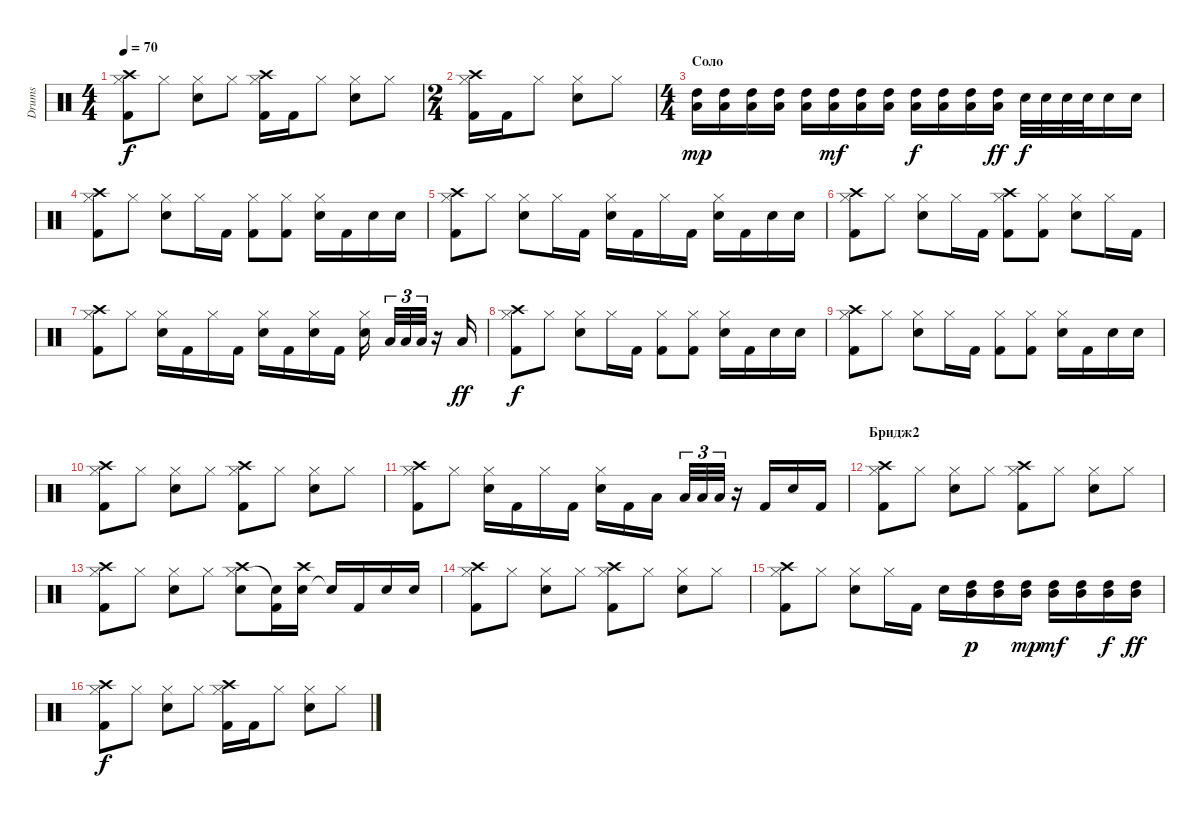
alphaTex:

\track ("Drums" "Drums") {instrument percussion}
\staff {score}
\articulation defaults
\ts (4 4)
\tempo 70
\clef neutral
\ks c
("Kick (hit) 2" "Hi-Hat (closed)" "Crash high (hit)").8{dy f} "Hi-Hat (closed)".8 ("Electric Snare (hit)" "Hi-Hat (closed)").8 "Hi-Hat (closed)".8 ("Kick (hit) 2" "Hi-Hat (closed)" "Crash high (hit)").16 "Kick (hit) 2".16 "Hi-Hat (closed)".8 ("Electric Snare (hit)" "Hi-Hat (closed)").8 "Hi-Hat (closed)".8 |
\ts (2 4)
("Kick (hit) 2" "Hi-Hat (closed)" "Crash high (hit)").16 "Kick (hit) 2".16 "Hi-Hat (closed)".8 ("Electric Snare (hit)" "Hi-Hat (closed)").8 "Hi-Hat (closed)".8 |
\ts (4 4)
\section ("" "Соло")
("Low Tom (hit)" "High Tom (hit)").16{dy mp} ("Low Tom (hit)" "High Tom (hit)").16 ("Low Tom (hit)" "High Tom (hit)").16 ("Low Tom (hit)" "High Tom (hit)").16 ("Low Tom (hit)" "High Tom (hit)").16 ("Low Tom (hit)" "High Tom (hit)").16{dy mf} ("Low Tom (hit)" "High Tom (hit)").16 ("Low Tom (hit)" "High Tom (hit)").16 ("Low Tom (hit)" "High Tom (hit)").16{dy f} ("Low Tom (hit)" "High Tom (hit)").16 ("Low Tom (hit)" "High Tom (hit)").16 ("Low Tom (hit)" "High Tom (hit)").16{dy ff} "Electric Snare (hit)".32{dy f} "Electric Snare (hit)".32 "Electric Snare (hit)".32 "Electric Snare (hit)".32 "Electric Snare (hit)".16 "Electric Snare (hit)".16 |
("Kick (hit) 2" "Hi-Hat (closed)" "Crash high (hit)").8 "Hi-Hat (closed)".8 ("Electric Snare (hit)" "Hi-Hat (closed)").8 "Hi-Hat (closed)".16 "Kick (hit) 2".16 ("Kick (hit) 2" "Hi-Hat (closed)").8 ("Kick (hit) 2" "Hi-Hat (closed)").8 ("Electric Snare (hit)" "Hi-Hat (closed)").16 "Kick (hit) 2".16 "Electric Snare (hit)".16 "Electric Snare (hit)".16 |
("Kick (hit) 2" "Hi-Hat (closed)" "Crash high (hit)").8 "Hi-Hat (closed)".8 ("Electric Snare (hit)" "Hi-Hat (closed)").8 "Hi-Hat (closed)".16 "Kick (hit) 2".16 ("Electric Snare (hit)" "Hi-Hat (closed)").16 "Kick (hit) 2".16 "Hi-Hat (closed)".16 "Kick (hit) 2".16 ("Electric Snare (hit)" "Hi-Hat (closed)").16 "Kick (hit) 2".16 "Electric Snare (hit)".16 "Electric Snare (hit)".16 |
("Kick (hit) 2" "Hi-Hat (closed)" "Crash high (hit)").8 "Hi-Hat (closed)".8 ("Electric Snare (hit)" "Hi-Hat (closed)").8 "Hi-Hat (closed)".16 "Kick (hit) 2".16 ("Kick (hit) 2" "Hi-Hat (closed)" "Crash high (hit)").8 ("Kick (hit) 2" "Hi-Hat (closed)").8 ("Electric Snare (hit)" "Hi-Hat (closed)").8 "Hi-Hat (closed)".16 "Kick (hit) 2".16 |
("Kick (hit) 2" "Hi-Hat (closed)" "Crash high (hit)").8 "Hi-Hat (closed)".8 ("Electric Snare (hit)" "Hi-Hat (closed)").16 "Kick (hit) 2".16 "Hi-Hat (closed)".16 "Kick (hit) 2".16 ("Electric Snare (hit)" "Hi-Hat (closed)").16 "Kick (hit) 2".16 ("Electric Snare (hit)" "Hi-Hat (closed)").16 "Kick (hit) 2".16 ("Electric Snare (hit)" "Hi-Hat (closed)").16 "Low Tom (hit)".32{tu (3 2)} "Low Tom (hit)".32{tu (3 2)} "Low Tom (hit)".32{tu (3 2)} r.16 "Low Tom (hit)".16{dy ff} |
("Kick (hit) 2" "Hi-Hat (closed)" "Crash high (hit)").8{dy f} "Hi-Hat (closed)".8 ("Electric Snare (hit)" "Hi-Hat (closed)").8 "Hi-Hat (closed)".16 "Kick (hit) 2".16 ("Kick (hit) 2" "Hi-Hat (closed)").8 ("Kick (hit) 2" "Hi-Hat (closed)").8 ("Electric Snare (hit)" "Hi-Hat (closed)").16 "Kick (hit) 2".16 "Electric Snare (hit)".16 "Electric Snare (hit)".16 |
("Kick (hit) 2" "Hi-Hat (closed)" "Crash high (hit)").8 "Hi-Hat (closed)".8 ("Electric Snare (hit)" "Hi-Hat (closed)").8 "Hi-Hat (closed)".16 "Kick (hit) 2".16 ("Kick (hit) 2" "Hi-Hat (closed)").8 ("Kick (hit) 2" "Hi-Hat (closed)").8 ("Electric Snare (hit)" "Hi-Hat (closed)").16 "Kick (hit) 2".16 "Electric Snare (hit)".16 "Electric Snare (hit)".16 |
("Kick (hit) 2" "Hi-Hat (closed)" "Crash high (hit)").8 "Hi-Hat (closed)".8 ("Electric Snare (hit)" "Hi-Hat (closed)").8 "Hi-Hat (closed)".8 ("Kick (hit) 2" "Hi-Hat (closed)" "Crash high (hit)").8 "Hi-Hat (closed)".8 ("Electric Snare (hit)" "Hi-Hat (closed)").8 "Hi-Hat (closed)".8 |
("Kick (hit) 2" "Hi-Hat (closed)" "Crash high (hit)").8 "Hi-Hat (closed)".8 ("Electric Snare (hit)" "Hi-Hat (closed)").16 "Kick (hit) 2".16 "Hi-Hat (closed)".16 "Kick (hit) 2".16 ("Electric Snare (hit)" "Hi-Hat (closed)").16 "Kick (hit) 2".16 "Low Tom (hit)".16 "Low Tom (hit)".32{tu (3 2)} "Low Tom (hit)".32{tu (3 2)} "Low Tom (hit)".32{tu (3 2)} r.16 "Kick (hit) 2".16 "Electric Snare (hit)".16 "Kick (hit) 2".16 |
\section ("" "Бридж2")
("Kick (hit) 2" "Hi-Hat (closed)" "Crash high (hit)").8 "Hi-Hat (closed)".8 ("Electric Snare (hit)" "Hi-Hat (closed)").8 "Hi-Hat (closed)".8 ("Kick (hit) 2" "Hi-Hat (closed)" "Crash high (hit)").8 "Hi-Hat (closed)".8 ("Electric Snare (hit)" "Hi-Hat (closed)").8 "Hi-Hat (closed)".8 |
("Kick (hit) 2" "Hi-Hat (closed)" "Crash high (hit)").8 "Hi-Hat (closed)".8 ("Electric Snare (hit)" "Hi-Hat (closed)").8 "Hi-Hat (closed)".8 ("Electric Snare (hit)" "Hi-Hat (closed)" "Crash high (hit)").8 ("Kick (hit) 2" "Snare (hit)"{t}).16 ("Electric Snare (hit)" "Crash high (hit)").16 "Snare (hit)"{t}.16 "Kick (hit) 2".16 "Electric Snare (hit)".16 "Electric Snare (hit)".16 |
("Kick (hit) 2" "Hi-Hat (closed)" "Crash high (hit)").8 "Hi-Hat (closed)".8 ("Electric Snare (hit)" "Hi-Hat (closed)").8 "Hi-Hat (closed)".8 ("Kick (hit) 2" "Hi-Hat (closed)" "Crash high (hit)").8 "Hi-Hat (closed)".8 ("Electric Snare (hit)" "Hi-Hat (closed)").8 "Hi-Hat (closed)".8 |
("Kick (hit) 2" "Hi-Hat (closed)" "Crash high (hit)").8 "Hi-Hat (closed)".8 ("Electric Snare (hit)" "Hi-Hat (closed)").8 "Hi-Hat (closed)".16 "Kick (hit) 2".16 "Electric Snare (hit)".16 ("High Tom (hit)" "Mid Tom (hit)").16{dy p} ("High Tom (hit)" "Mid Tom (hit)").16 ("High Tom (hit)" "Mid Tom (hit)").16{dy mp} ("High Tom (hit)" "Mid Tom (hit)").16{dy mf} ("High Tom (hit)" "Mid Tom (hit)").16 ("High Tom (hit)" "Mid Tom (hit)").16{dy f} ("High Tom (hit)" "Mid Tom (hit)").16{dy ff} |
("Kick (hit) 2" "Hi-Hat (closed)" "Crash high (hit)").8{dy f} "Hi-Hat (closed)".8 ("Electric Snare (hit)" "Hi-Hat (closed)").8 "Hi-Hat (closed)".8 ("Kick (hit) 2" "Hi-Hat (closed)" "Crash high (hit)").16 "Kick (hit) 2".16 "Hi-Hat (closed)".8 ("Electric Snare (hit)" "Hi-Hat (closed)").8 "Hi-Hat (closed)".8
